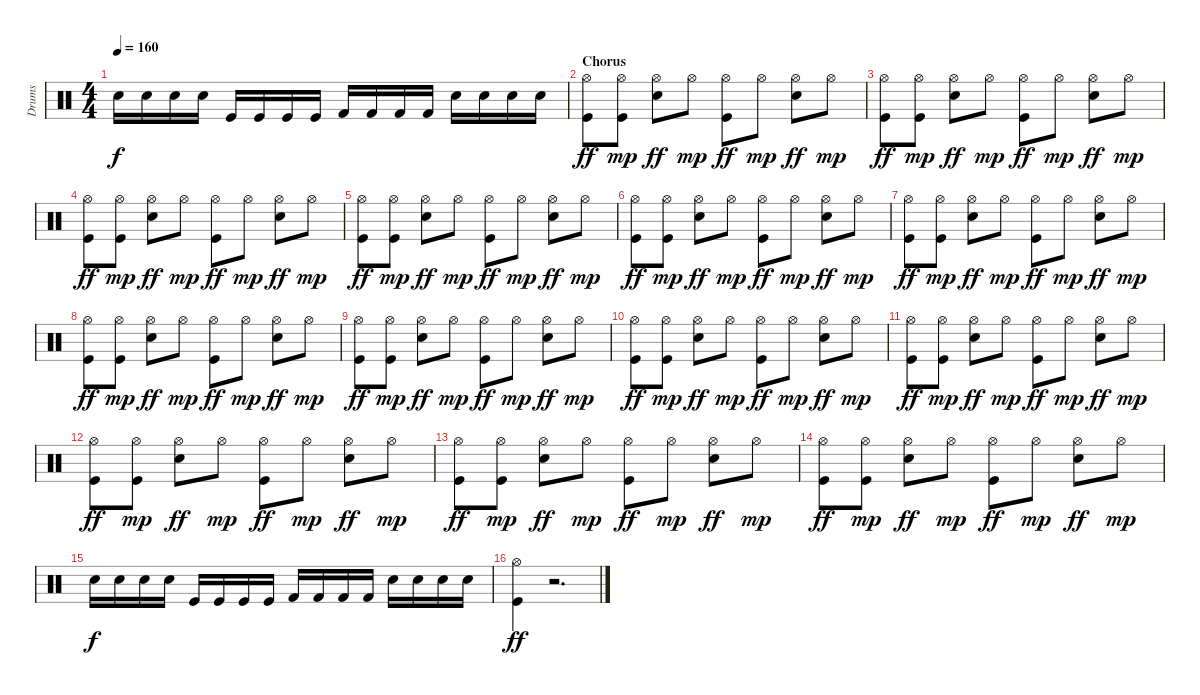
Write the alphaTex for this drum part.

\track ("Drums" "Drums") {instrument percussion}
\staff {score}
\articulation defaults
\ts (4 4)
\tempo 160
\clef neutral
\ks c "Electric Snare (hit)".16{dy f} "Electric Snare (hit)".16 "Electric Snare (hit)".16 "Electric Snare (hit)".16 "Kick (hit)".16 "Kick (hit)".16 "Kick (hit)".16 "Kick (hit)".16 "Kick (hit) 2".16 "Kick (hit) 2".16 "Kick (hit) 2".16 "Kick (hit) 2".16 "Electric Snare (hit)".16 "Electric Snare (hit)".16 "Electric Snare (hit)".16 "Electric Snare (hit)".16
|
\section ("" "Chorus ")
("Kick (hit)" "Hi-Hat (open)").8{dy ff} ("Kick (hit)" "Hi-Hat (open)").8{dy mp} ("Electric Snare (hit)" "Hi-Hat (open)").8{dy ff} "Hi-Hat (open)".8{dy mp} ("Kick (hit)" "Hi-Hat (open)").8{dy ff} "Hi-Hat (open)".8{dy mp} ("Electric Snare (hit)" "Hi-Hat (open)").8{dy ff} "Hi-Hat (open)".8{dy mp} |
("Kick (hit)" "Hi-Hat (open)").8{dy ff} ("Kick (hit)" "Hi-Hat (open)").8{dy mp} ("Electric Snare (hit)" "Hi-Hat (open)").8{dy ff} "Hi-Hat (open)".8{dy mp} ("Kick (hit)" "Hi-Hat (open)").8{dy ff} "Hi-Hat (open)".8{dy mp} ("Electric Snare (hit)" "Hi-Hat (open)").8{dy ff} "Hi-Hat (open)".8{dy mp} |
("Kick (hit)" "Hi-Hat (open)").8{dy ff} ("Kick (hit)" "Hi-Hat (open)").8{dy mp} ("Electric Snare (hit)" "Hi-Hat (open)").8{dy ff} "Hi-Hat (open)".8{dy mp} ("Kick (hit)" "Hi-Hat (open)").8{dy ff} "Hi-Hat (open)".8{dy mp} ("Electric Snare (hit)" "Hi-Hat (open)").8{dy ff} "Hi-Hat (open)".8{dy mp} |
("Kick (hit)" "Hi-Hat (open)").8{dy ff} ("Kick (hit)" "Hi-Hat (open)").8{dy mp} ("Electric Snare (hit)" "Hi-Hat (open)").8{dy ff} "Hi-Hat (open)".8{dy mp} ("Kick (hit)" "Hi-Hat (open)").8{dy ff} "Hi-Hat (open)".8{dy mp} ("Electric Snare (hit)" "Hi-Hat (open)").8{dy ff} "Hi-Hat (open)".8{dy mp} |
("Kick (hit)" "Hi-Hat (open)").8{dy ff} ("Kick (hit)" "Hi-Hat (open)").8{dy mp} ("Electric Snare (hit)" "Hi-Hat (open)").8{dy ff} "Hi-Hat (open)".8{dy mp} ("Kick (hit)" "Hi-Hat (open)").8{dy ff} "Hi-Hat (open)".8{dy mp} ("Electric Snare (hit)" "Hi-Hat (open)").8{dy ff} "Hi-Hat (open)".8{dy mp} |
("Kick (hit)" "Hi-Hat (open)").8{dy ff} ("Kick (hit)" "Hi-Hat (open)").8{dy mp} ("Electric Snare (hit)" "Hi-Hat (open)").8{dy ff} "Hi-Hat (open)".8{dy mp} ("Kick (hit)" "Hi-Hat (open)").8{dy ff} "Hi-Hat (open)".8{dy mp} ("Electric Snare (hit)" "Hi-Hat (open)").8{dy ff} "Hi-Hat (open)".8{dy mp} |
("Kick (hit)" "Hi-Hat (open)").8{dy ff} ("Kick (hit)" "Hi-Hat (open)").8{dy mp} ("Electric Snare (hit)" "Hi-Hat (open)").8{dy ff} "Hi-Hat (open)".8{dy mp} ("Kick (hit)" "Hi-Hat (open)").8{dy ff} "Hi-Hat (open)".8{dy mp} ("Electric Snare (hit)" "Hi-Hat (open)").8{dy ff} "Hi-Hat (open)".8{dy mp} |
("Kick (hit)" "Hi-Hat (open)").8{dy ff} ("Kick (hit)" "Hi-Hat (open)").8{dy mp} ("Electric Snare (hit)" "Hi-Hat (open)").8{dy ff} "Hi-Hat (open)".8{dy mp} ("Kick (hit)" "Hi-Hat (open)").8{dy ff} "Hi-Hat (open)".8{dy mp} ("Electric Snare (hit)" "Hi-Hat (open)").8{dy ff} "Hi-Hat (open)".8{dy mp} |
("Kick (hit)" "Hi-Hat (open)").8{dy ff} ("Kick (hit)" "Hi-Hat (open)").8{dy mp} ("Electric Snare (hit)" "Hi-Hat (open)").8{dy ff} "Hi-Hat (open)".8{dy mp} ("Kick (hit)" "Hi-Hat (open)").8{dy ff} "Hi-Hat (open)".8{dy mp} ("Electric Snare (hit)" "Hi-Hat (open)").8{dy ff} "Hi-Hat (open)".8{dy mp} |
("Kick (hit)" "Hi-Hat (open)").8{dy ff} ("Kick (hit)" "Hi-Hat (open)").8{dy mp} ("Electric Snare (hit)" "Hi-Hat (open)").8{dy ff} "Hi-Hat (open)".8{dy mp} ("Kick (hit)" "Hi-Hat (open)").8{dy ff} "Hi-Hat (open)".8{dy mp} ("Electric Snare (hit)" "Hi-Hat (open)").8{dy ff} "Hi-Hat (open)".8{dy mp} |
("Kick (hit)" "Hi-Hat (open)").8{dy ff} ("Kick (hit)" "Hi-Hat (open)").8{dy mp} ("Electric Snare (hit)" "Hi-Hat (open)").8{dy ff} "Hi-Hat (open)".8{dy mp} ("Kick (hit)" "Hi-Hat (open)").8{dy ff} "Hi-Hat (open)".8{dy mp} ("Electric Snare (hit)" "Hi-Hat (open)").8{dy ff} "Hi-Hat (open)".8{dy mp} |
("Kick (hit)" "Hi-Hat (open)").8{dy ff} ("Kick (hit)" "Hi-Hat (open)").8{dy mp} ("Electric Snare (hit)" "Hi-Hat (open)").8{dy ff} "Hi-Hat (open)".8{dy mp} ("Kick (hit)" "Hi-Hat (open)").8{dy ff} "Hi-Hat (open)".8{dy mp} ("Electric Snare (hit)" "Hi-Hat (open)").8{dy ff} "Hi-Hat (open)".8{dy mp} |
("Kick (hit)" "Hi-Hat (open)").8{dy ff} ("Kick (hit)" "Hi-Hat (open)").8{dy mp} ("Electric Snare (hit)" "Hi-Hat (open)").8{dy ff} "Hi-Hat (open)".8{dy mp} ("Kick (hit)" "Hi-Hat (open)").8{dy ff} "Hi-Hat (open)".8{dy mp} ("Electric Snare (hit)" "Hi-Hat (open)").8{dy ff} "Hi-Hat (open)".8{dy mp} |
"Electric Snare (hit)".16{dy f} "Electric Snare (hit)".16 "Electric Snare (hit)".16 "Electric Snare (hit)".16 "Kick (hit)".16 "Kick (hit)".16 "Kick (hit)".16 "Kick (hit)".16 "Kick (hit) 2".16 "Kick (hit) 2".16 "Kick (hit) 2".16 "Kick (hit) 2".16 "Electric Snare (hit)".16 "Electric Snare (hit)".16 "Electric Snare (hit)".16 "Electric Snare (hit)".16 |
("Kick (hit)" "Hi-Hat (open)").4{dy ff} r.2{d}
